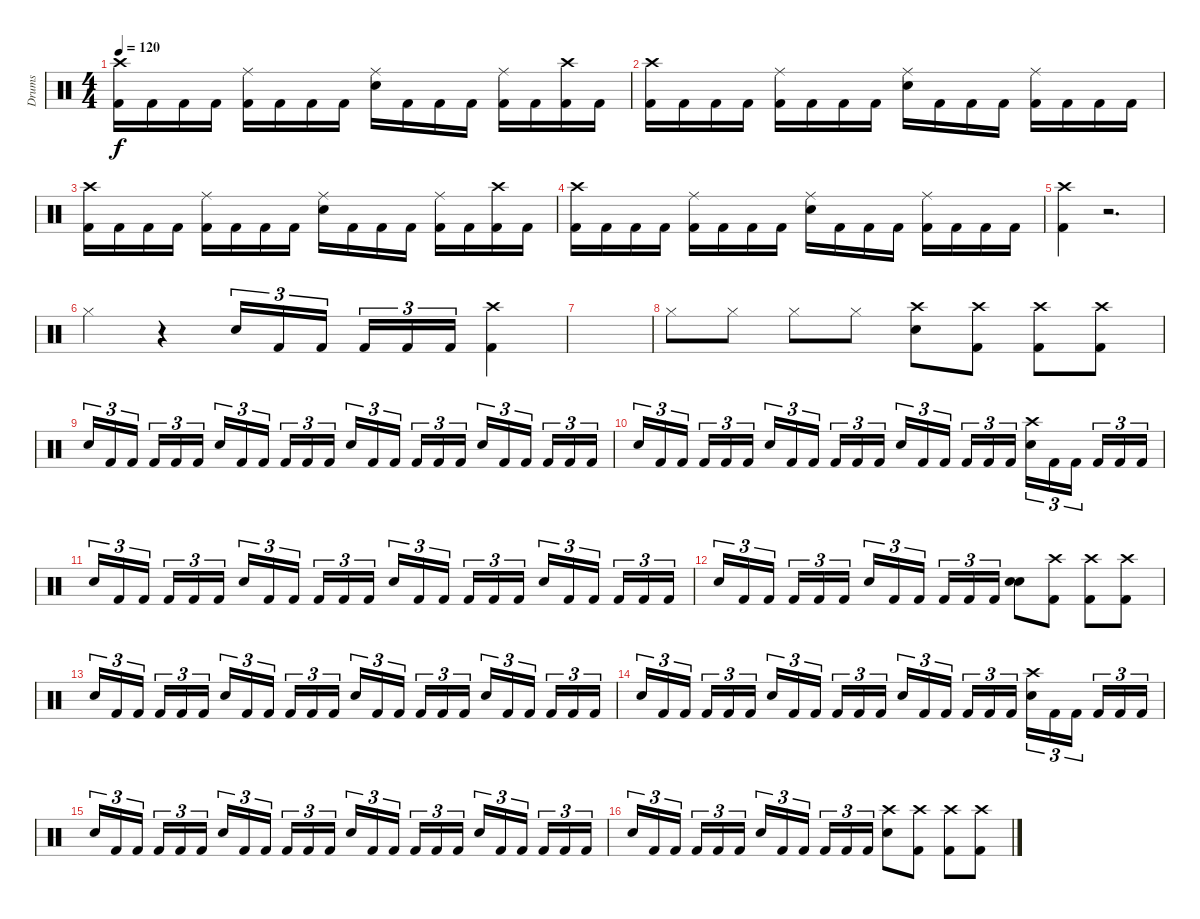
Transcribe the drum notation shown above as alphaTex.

\track ("Drums" "Drums") {instrument percussion}
\staff {score}
\articulation defaults
\ts (4 4)
\tempo 120
\clef neutral
\ks c
("Crash high (hit)" "Kick (hit) 2").16{dy f} "Kick (hit) 2".16 "Kick (hit) 2".16 "Kick (hit) 2".16 ("Ride (middle)" "Kick (hit) 2").16 "Kick (hit) 2".16 "Kick (hit) 2".16 "Kick (hit) 2".16 ("Ride (middle)" "Electric Snare (hit)").16 "Kick (hit) 2".16 "Kick (hit) 2".16 "Kick (hit) 2".16 ("Ride (middle)" "Kick (hit) 2").16 "Kick (hit) 2".16 ("Crash high (hit)" "Kick (hit) 2").16 "Kick (hit) 2".16 |
("Crash high (hit)" "Kick (hit) 2").16 "Kick (hit) 2".16 "Kick (hit) 2".16 "Kick (hit) 2".16 ("Ride (middle)" "Kick (hit) 2").16 "Kick (hit) 2".16 "Kick (hit) 2".16 "Kick (hit) 2".16 ("Ride (middle)" "Electric Snare (hit)").16 "Kick (hit) 2".16 "Kick (hit) 2".16 "Kick (hit) 2".16 ("Ride (middle)" "Kick (hit) 2").16 "Kick (hit) 2".16 "Kick (hit) 2".16 "Kick (hit) 2".16 |
("Crash high (hit)" "Kick (hit) 2").16 "Kick (hit) 2".16 "Kick (hit) 2".16 "Kick (hit) 2".16 ("Ride (middle)" "Kick (hit) 2").16 "Kick (hit) 2".16 "Kick (hit) 2".16 "Kick (hit) 2".16 ("Ride (middle)" "Electric Snare (hit)").16 "Kick (hit) 2".16 "Kick (hit) 2".16 "Kick (hit) 2".16 ("Ride (middle)" "Kick (hit) 2").16 "Kick (hit) 2".16 ("Crash high (hit)" "Kick (hit) 2").16 "Kick (hit) 2".16 |
("Crash high (hit)" "Kick (hit) 2").16 "Kick (hit) 2".16 "Kick (hit) 2".16 "Kick (hit) 2".16 ("Ride (middle)" "Kick (hit) 2").16 "Kick (hit) 2".16 "Kick (hit) 2".16 "Kick (hit) 2".16 ("Ride (middle)" "Electric Snare (hit)").16 "Kick (hit) 2".16 "Kick (hit) 2".16 "Kick (hit) 2".16 ("Ride (middle)" "Kick (hit) 2").16 "Kick (hit) 2".16 "Kick (hit) 2".16 "Kick (hit) 2".16 |
("Crash high (hit)" "Kick (hit) 2").4 r.2{d} |
"Hi-Hat (closed)".4 r.4 "Electric Snare (hit)".16{tu (3 2)} "Kick (hit) 2".16{tu (3 2)} "Kick (hit) 2".16{tu (3 2) beam splitsecondary} "Kick (hit) 2".16{tu (3 2)} "Kick (hit) 2".16{tu (3 2)} "Kick (hit) 2".16{tu (3 2)} ("Crash high (hit)" "Kick (hit) 2").4 |
|
"Hi-Hat (closed)".8 "Hi-Hat (closed)".8 "Hi-Hat (closed)".8 "Hi-Hat (closed)".8 ("Crash high (hit)" "Electric Snare (hit)").8 ("Crash high (hit)" "Kick (hit) 2").8 ("Crash high (hit)" "Kick (hit) 2").8 ("Crash high (hit)" "Kick (hit) 2").8 |
"Electric Snare (hit)".16{tu (3 2)} "Kick (hit) 2".16{tu (3 2)} "Kick (hit) 2".16{tu (3 2) beam splitsecondary} "Kick (hit) 2".16{tu (3 2)} "Kick (hit) 2".16{tu (3 2)} "Kick (hit) 2".16{tu (3 2)} "Electric Snare (hit)".16{tu (3 2)} "Kick (hit) 2".16{tu (3 2)} "Kick (hit) 2".16{tu (3 2) beam splitsecondary} "Kick (hit) 2".16{tu (3 2)} "Kick (hit) 2".16{tu (3 2)} "Kick (hit) 2".16{tu (3 2)} "Electric Snare (hit)".16{tu (3 2)} "Kick (hit) 2".16{tu (3 2)} "Kick (hit) 2".16{tu (3 2) beam splitsecondary} "Kick (hit) 2".16{tu (3 2)} "Kick (hit) 2".16{tu (3 2)} "Kick (hit) 2".16{tu (3 2)} "Electric Snare (hit)".16{tu (3 2)} "Kick (hit) 2".16{tu (3 2)} "Kick (hit) 2".16{tu (3 2) beam splitsecondary} "Kick (hit) 2".16{tu (3 2)} "Kick (hit) 2".16{tu (3 2)} "Kick (hit) 2".16{tu (3 2)} |
"Electric Snare (hit)".16{tu (3 2)} "Kick (hit) 2".16{tu (3 2)} "Kick (hit) 2".16{tu (3 2) beam splitsecondary} "Kick (hit) 2".16{tu (3 2)} "Kick (hit) 2".16{tu (3 2)} "Kick (hit) 2".16{tu (3 2)} "Electric Snare (hit)".16{tu (3 2)} "Kick (hit) 2".16{tu (3 2)} "Kick (hit) 2".16{tu (3 2) beam splitsecondary} "Kick (hit) 2".16{tu (3 2)} "Kick (hit) 2".16{tu (3 2)} "Kick (hit) 2".16{tu (3 2)} "Electric Snare (hit)".16{tu (3 2)} "Kick (hit) 2".16{tu (3 2)} "Kick (hit) 2".16{tu (3 2) beam splitsecondary} "Kick (hit) 2".16{tu (3 2)} "Kick (hit) 2".16{tu (3 2)} "Kick (hit) 2".16{tu (3 2)} ("Crash high (hit)" "Electric Snare (hit)").16{tu (3 2)} "Kick (hit) 2".16{tu (3 2)} "Kick (hit) 2".16{tu (3 2) beam splitsecondary} "Kick (hit) 2".16{tu (3 2)} "Kick (hit) 2".16{tu (3 2)} "Kick (hit) 2".16{tu (3 2)} |
"Electric Snare (hit)".16{tu (3 2)} "Kick (hit) 2".16{tu (3 2)} "Kick (hit) 2".16{tu (3 2) beam splitsecondary} "Kick (hit) 2".16{tu (3 2)} "Kick (hit) 2".16{tu (3 2)} "Kick (hit) 2".16{tu (3 2)} "Electric Snare (hit)".16{tu (3 2)} "Kick (hit) 2".16{tu (3 2)} "Kick (hit) 2".16{tu (3 2) beam splitsecondary} "Kick (hit) 2".16{tu (3 2)} "Kick (hit) 2".16{tu (3 2)} "Kick (hit) 2".16{tu (3 2)} "Electric Snare (hit)".16{tu (3 2)} "Kick (hit) 2".16{tu (3 2)} "Kick (hit) 2".16{tu (3 2) beam splitsecondary} "Kick (hit) 2".16{tu (3 2)} "Kick (hit) 2".16{tu (3 2)} "Kick (hit) 2".16{tu (3 2)} "Electric Snare (hit)".16{tu (3 2)} "Kick (hit) 2".16{tu (3 2)} "Kick (hit) 2".16{tu (3 2) beam splitsecondary} "Kick (hit) 2".16{tu (3 2)} "Kick (hit) 2".16{tu (3 2)} "Kick (hit) 2".16{tu (3 2)} |
"Electric Snare (hit)".16{tu (3 2)} "Kick (hit) 2".16{tu (3 2)} "Kick (hit) 2".16{tu (3 2) beam splitsecondary} "Kick (hit) 2".16{tu (3 2)} "Kick (hit) 2".16{tu (3 2)} "Kick (hit) 2".16{tu (3 2)} "Electric Snare (hit)".16{tu (3 2)} "Kick (hit) 2".16{tu (3 2)} "Kick (hit) 2".16{tu (3 2) beam splitsecondary} "Kick (hit) 2".16{tu (3 2)} "Kick (hit) 2".16{tu (3 2)} "Kick (hit) 2".16{tu (3 2)} ("Snare (hit) 2" "Electric Snare (hit)").8 ("Crash high (hit)" "Kick (hit) 2").8 ("Crash high (hit)" "Kick (hit) 2").8 ("Crash high (hit)" "Kick (hit) 2").8 |
"Electric Snare (hit)".16{tu (3 2)} "Kick (hit) 2".16{tu (3 2)} "Kick (hit) 2".16{tu (3 2) beam splitsecondary} "Kick (hit) 2".16{tu (3 2)} "Kick (hit) 2".16{tu (3 2)} "Kick (hit) 2".16{tu (3 2)} "Electric Snare (hit)".16{tu (3 2)} "Kick (hit) 2".16{tu (3 2)} "Kick (hit) 2".16{tu (3 2) beam splitsecondary} "Kick (hit) 2".16{tu (3 2)} "Kick (hit) 2".16{tu (3 2)} "Kick (hit) 2".16{tu (3 2)} "Electric Snare (hit)".16{tu (3 2)} "Kick (hit) 2".16{tu (3 2)} "Kick (hit) 2".16{tu (3 2) beam splitsecondary} "Kick (hit) 2".16{tu (3 2)} "Kick (hit) 2".16{tu (3 2)} "Kick (hit) 2".16{tu (3 2)} "Electric Snare (hit)".16{tu (3 2)} "Kick (hit) 2".16{tu (3 2)} "Kick (hit) 2".16{tu (3 2) beam splitsecondary} "Kick (hit) 2".16{tu (3 2)} "Kick (hit) 2".16{tu (3 2)} "Kick (hit) 2".16{tu (3 2)} |
"Electric Snare (hit)".16{tu (3 2)} "Kick (hit) 2".16{tu (3 2)} "Kick (hit) 2".16{tu (3 2) beam splitsecondary} "Kick (hit) 2".16{tu (3 2)} "Kick (hit) 2".16{tu (3 2)} "Kick (hit) 2".16{tu (3 2)} "Electric Snare (hit)".16{tu (3 2)} "Kick (hit) 2".16{tu (3 2)} "Kick (hit) 2".16{tu (3 2) beam splitsecondary} "Kick (hit) 2".16{tu (3 2)} "Kick (hit) 2".16{tu (3 2)} "Kick (hit) 2".16{tu (3 2)} "Electric Snare (hit)".16{tu (3 2)} "Kick (hit) 2".16{tu (3 2)} "Kick (hit) 2".16{tu (3 2) beam splitsecondary} "Kick (hit) 2".16{tu (3 2)} "Kick (hit) 2".16{tu (3 2)} "Kick (hit) 2".16{tu (3 2)} ("Crash high (hit)" "Electric Snare (hit)").16{tu (3 2)} "Kick (hit) 2".16{tu (3 2)} "Kick (hit) 2".16{tu (3 2) beam splitsecondary} "Kick (hit) 2".16{tu (3 2)} "Kick (hit) 2".16{tu (3 2)} "Kick (hit) 2".16{tu (3 2)} |
"Electric Snare (hit)".16{tu (3 2)} "Kick (hit) 2".16{tu (3 2)} "Kick (hit) 2".16{tu (3 2) beam splitsecondary} "Kick (hit) 2".16{tu (3 2)} "Kick (hit) 2".16{tu (3 2)} "Kick (hit) 2".16{tu (3 2)} "Electric Snare (hit)".16{tu (3 2)} "Kick (hit) 2".16{tu (3 2)} "Kick (hit) 2".16{tu (3 2) beam splitsecondary} "Kick (hit) 2".16{tu (3 2)} "Kick (hit) 2".16{tu (3 2)} "Kick (hit) 2".16{tu (3 2)} "Electric Snare (hit)".16{tu (3 2)} "Kick (hit) 2".16{tu (3 2)} "Kick (hit) 2".16{tu (3 2) beam splitsecondary} "Kick (hit) 2".16{tu (3 2)} "Kick (hit) 2".16{tu (3 2)} "Kick (hit) 2".16{tu (3 2)} "Electric Snare (hit)".16{tu (3 2)} "Kick (hit) 2".16{tu (3 2)} "Kick (hit) 2".16{tu (3 2) beam splitsecondary} "Kick (hit) 2".16{tu (3 2)} "Kick (hit) 2".16{tu (3 2)} "Kick (hit) 2".16{tu (3 2)} |
"Electric Snare (hit)".16{tu (3 2)} "Kick (hit) 2".16{tu (3 2)} "Kick (hit) 2".16{tu (3 2) beam splitsecondary} "Kick (hit) 2".16{tu (3 2)} "Kick (hit) 2".16{tu (3 2)} "Kick (hit) 2".16{tu (3 2)} "Electric Snare (hit)".16{tu (3 2)} "Kick (hit) 2".16{tu (3 2)} "Kick (hit) 2".16{tu (3 2) beam splitsecondary} "Kick (hit) 2".16{tu (3 2)} "Kick (hit) 2".16{tu (3 2)} "Kick (hit) 2".16{tu (3 2)} ("Crash high (hit)" "Electric Snare (hit)").8 ("Crash high (hit)" "Kick (hit) 2").8 ("Crash high (hit)" "Kick (hit) 2").8 ("Crash high (hit)" "Kick (hit) 2").8
